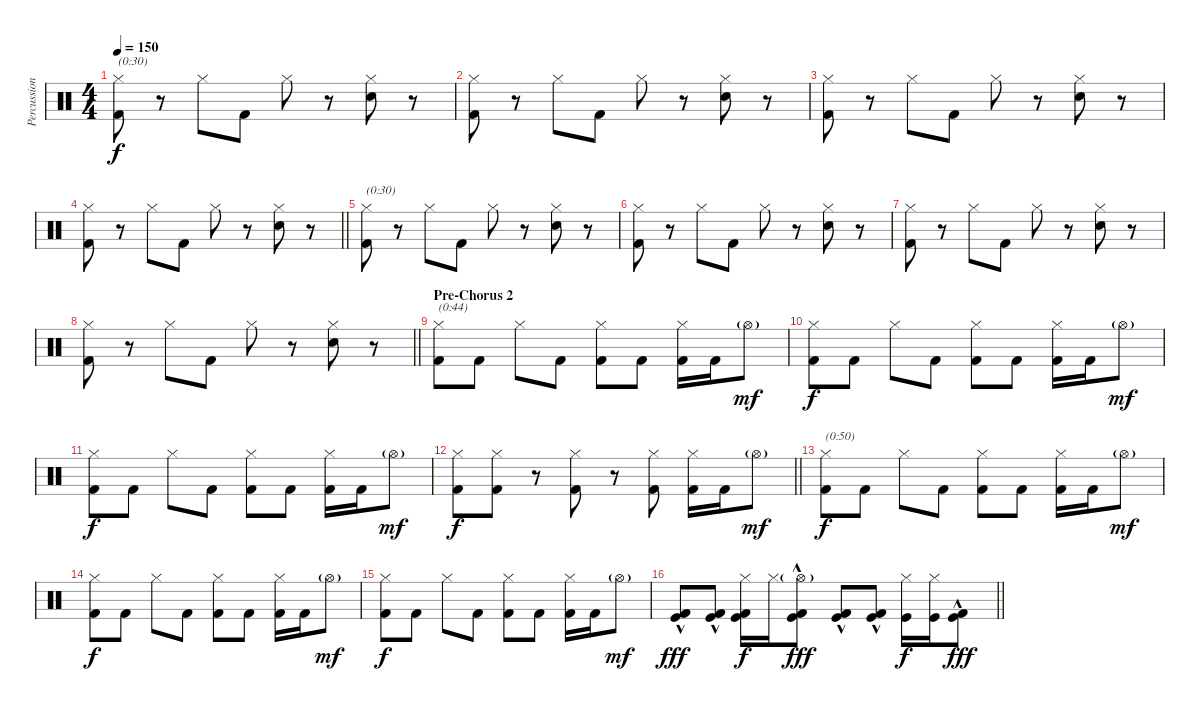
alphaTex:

\track ("Percussion" "Percussion") {instrument percussion}
\staff {score}
\articulation defaults
\ts (4 4)
\tempo 150
\clef neutral
\ks c
("Hi-Hat (closed)" "Kick (hit) 2").8{txt "(0:30)" dy f} r.8 "Hi-Hat (closed)".8 "Kick (hit) 2".8 "Hi-Hat (closed)".8 r.8 ("Hi-Hat (closed)" "Hand Clap (hit)").8 r.8 |
("Hi-Hat (closed)" "Kick (hit) 2").8 r.8 "Hi-Hat (closed)".8 "Kick (hit) 2".8 "Hi-Hat (closed)".8 r.8 ("Hi-Hat (closed)" "Hand Clap (hit)").8 r.8 |
("Hi-Hat (closed)" "Kick (hit) 2").8 r.8 "Hi-Hat (closed)".8 "Kick (hit) 2".8 "Hi-Hat (closed)".8 r.8 ("Hi-Hat (closed)" "Hand Clap (hit)").8 r.8 |
\barLineRight lightlight
("Hi-Hat (closed)" "Kick (hit) 2").8 r.8 "Hi-Hat (closed)".8 "Kick (hit) 2".8 "Hi-Hat (closed)".8 r.8 ("Hi-Hat (closed)" "Hand Clap (hit)").8 r.8 |
("Hi-Hat (closed)" "Kick (hit) 2").8{txt "(0:30)"} r.8 "Hi-Hat (closed)".8 "Kick (hit) 2".8 "Hi-Hat (closed)".8 r.8 ("Hi-Hat (closed)" "Hand Clap (hit)").8 r.8 |
("Hi-Hat (closed)" "Kick (hit) 2").8 r.8 "Hi-Hat (closed)".8 "Kick (hit) 2".8 "Hi-Hat (closed)".8 r.8 ("Hi-Hat (closed)" "Hand Clap (hit)").8 r.8 |
("Hi-Hat (closed)" "Kick (hit) 2").8 r.8 "Hi-Hat (closed)".8 "Kick (hit) 2".8 "Hi-Hat (closed)".8 r.8 ("Hi-Hat (closed)" "Hand Clap (hit)").8 r.8 |
\barLineRight lightlight
("Hi-Hat (closed)" "Kick (hit) 2").8 r.8 "Hi-Hat (closed)".8 "Kick (hit) 2".8 "Hi-Hat (closed)".8 r.8 ("Hi-Hat (closed)" "Hand Clap (hit)").8 r.8 |
\section ("" "Pre-Chorus 2")
("Hi-Hat (closed)" "Kick (hit) 2").8{txt "(0:44)"} "Kick (hit) 2".8 "Hi-Hat (closed)".8 "Kick (hit) 2".8 ("Hi-Hat (closed)" "Kick (hit) 2").8 "Kick (hit) 2".8 ("Hi-Hat (closed)" "Kick (hit) 2").16 "Kick (hit) 2".16 "Hi-Hat (open)"{g}.8{dy mf} |
("Hi-Hat (closed)" "Kick (hit) 2").8{dy f} "Kick (hit) 2".8 "Hi-Hat (closed)".8 "Kick (hit) 2".8 ("Hi-Hat (closed)" "Kick (hit) 2").8 "Kick (hit) 2".8 ("Hi-Hat (closed)" "Kick (hit) 2").16 "Kick (hit) 2".16 "Hi-Hat (open)"{g}.8{dy mf} |
("Hi-Hat (closed)" "Kick (hit) 2").8{dy f} "Kick (hit) 2".8 "Hi-Hat (closed)".8 "Kick (hit) 2".8 ("Hi-Hat (closed)" "Kick (hit) 2").8 "Kick (hit) 2".8 ("Hi-Hat (closed)" "Kick (hit) 2").16 "Kick (hit) 2".16 "Hi-Hat (open)"{g}.8{dy mf} |
\barLineRight lightlight
("Hi-Hat (closed)" "Kick (hit) 2").8{dy f} ("Hi-Hat (closed)" "Kick (hit) 2").8 r.8 ("Hi-Hat (closed)" "Kick (hit) 2").8 r.8 ("Hi-Hat (closed)" "Kick (hit) 2").8 ("Hi-Hat (closed)" "Kick (hit) 2").16 "Kick (hit) 2".16 "Hi-Hat (open)"{g}.8{dy mf} |
("Hi-Hat (closed)" "Kick (hit) 2").8{txt "(0:50)" dy f} "Kick (hit) 2".8 "Hi-Hat (closed)".8 "Kick (hit) 2".8 ("Hi-Hat (closed)" "Kick (hit) 2").8 "Kick (hit) 2".8 ("Hi-Hat (closed)" "Kick (hit) 2").16 "Kick (hit) 2".16 "Hi-Hat (open)"{g}.8{dy mf} |
("Hi-Hat (closed)" "Kick (hit) 2").8{dy f} "Kick (hit) 2".8 "Hi-Hat (closed)".8 "Kick (hit) 2".8 ("Hi-Hat (closed)" "Kick (hit) 2").8 "Kick (hit) 2".8 ("Hi-Hat (closed)" "Kick (hit) 2").16 "Kick (hit) 2".16 "Hi-Hat (open)"{g}.8{dy mf} |
("Hi-Hat (closed)" "Kick (hit) 2").8{dy f} "Kick (hit) 2".8 "Hi-Hat (closed)".8 "Kick (hit) 2".8 ("Hi-Hat (closed)" "Kick (hit) 2").8 "Kick (hit) 2".8 ("Hi-Hat (closed)" "Kick (hit) 2").16 "Kick (hit) 2".16 "Hi-Hat (open)"{g}.8{dy mf} |
\barLineRight lightlight
("Kick (hit)" "Kick (hit) 2"{hac}).8{dy fff} ("Kick (hit)" "Kick (hit) 2"{hac}).8 ("Hi-Hat (closed)" "Kick (hit)" "Kick (hit) 2").16{dy f} "Hi-Hat (closed)".16 ("Hi-Hat (open)"{g} "Kick (hit)" "Kick (hit) 2"{hac}).8{dy fff} ("Kick (hit)" "Kick (hit) 2"{hac}).8 ("Kick (hit)" "Kick (hit) 2"{hac}).8 ("Hi-Hat (closed)" "Kick (hit)").16{dy f} ("Hi-Hat (closed)" "Kick (hit)").16 ("Kick (hit)" "Kick (hit) 2"{hac}).8{dy fff}
